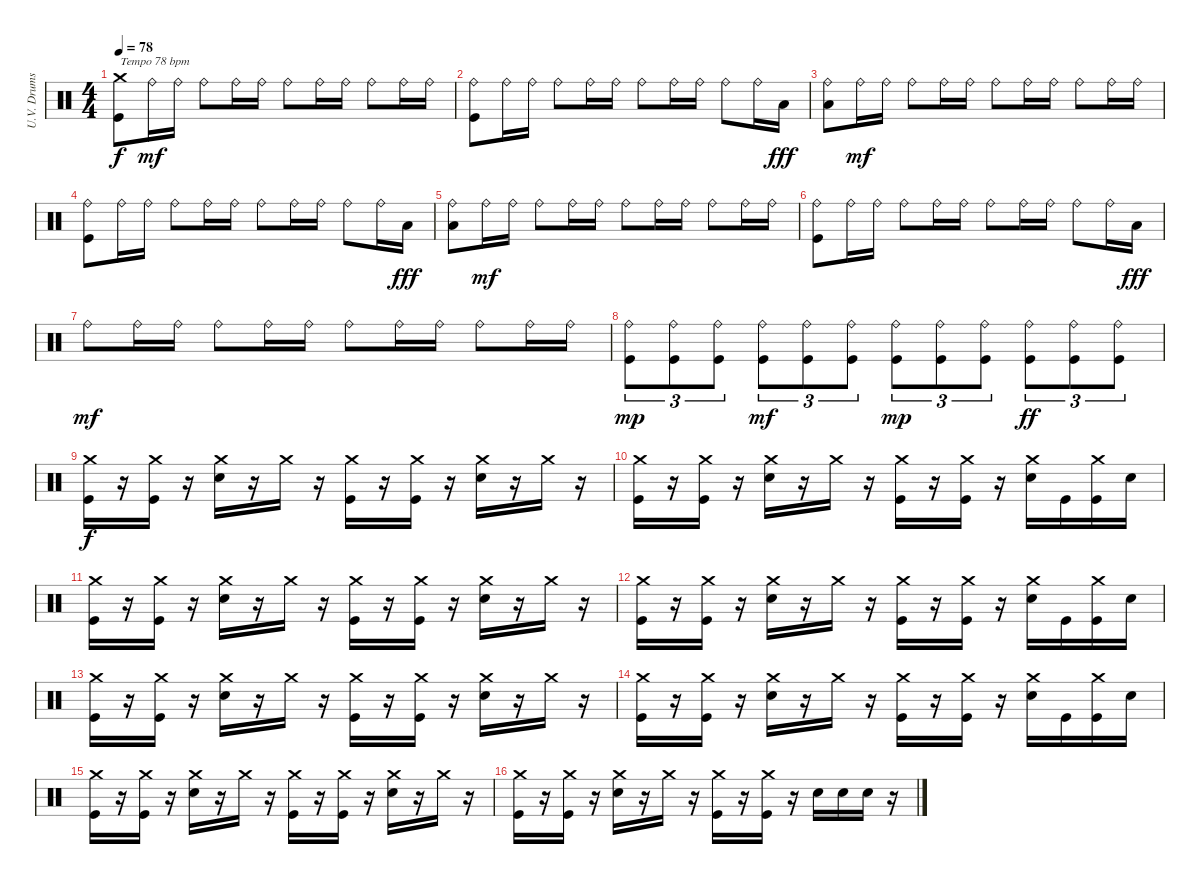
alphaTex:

\track ("U.V. Drums" "U.V. Drums") {instrument percussion}
\staff {score}
\articulation defaults
\ts (4 4)
\tempo 78
\clef neutral
\ks c
("Crash medium (hit)" "Kick (hit)").8{txt "Tempo 78 bpm" dy f} "Ride (bell)".16{dy mf} "Ride (bell)".16 "Ride (bell)".8 "Ride (bell)".16 "Ride (bell)".16 "Ride (bell)".8 "Ride (bell)".16 "Ride (bell)".16 "Ride (bell)".8 "Ride (bell)".16 "Ride (bell)".16 |
("Ride (bell)" "Kick (hit)").8 "Ride (bell)".16 "Ride (bell)".16 "Ride (bell)".8 "Ride (bell)".16 "Ride (bell)".16 "Ride (bell)".8 "Ride (bell)".16 "Ride (bell)".16 "Ride (bell)".8 "Ride (bell)".16 "Low Tom (hit)".16{dy fff} |
("Ride (bell)" "Low Tom (hit)").8 "Ride (bell)".16{dy mf} "Ride (bell)".16 "Ride (bell)".8 "Ride (bell)".16 "Ride (bell)".16 "Ride (bell)".8 "Ride (bell)".16 "Ride (bell)".16 "Ride (bell)".8 "Ride (bell)".16 "Ride (bell)".16 |
("Ride (bell)" "Kick (hit)").8 "Ride (bell)".16 "Ride (bell)".16 "Ride (bell)".8 "Ride (bell)".16 "Ride (bell)".16 "Ride (bell)".8 "Ride (bell)".16 "Ride (bell)".16 "Ride (bell)".8 "Ride (bell)".16 "Low Tom (hit)".16{dy fff} |
("Ride (bell)" "Low Tom (hit)").8 "Ride (bell)".16{dy mf} "Ride (bell)".16 "Ride (bell)".8 "Ride (bell)".16 "Ride (bell)".16 "Ride (bell)".8 "Ride (bell)".16 "Ride (bell)".16 "Ride (bell)".8 "Ride (bell)".16 "Ride (bell)".16 |
("Ride (bell)" "Kick (hit)").8 "Ride (bell)".16 "Ride (bell)".16 "Ride (bell)".8 "Ride (bell)".16 "Ride (bell)".16 "Ride (bell)".8 "Ride (bell)".16 "Ride (bell)".16 "Ride (bell)".8 "Ride (bell)".16 "Low Tom (hit)".16{dy fff} |
"Ride (bell)".8{dy mf} "Ride (bell)".16 "Ride (bell)".16 "Ride (bell)".8 "Ride (bell)".16 "Ride (bell)".16 "Ride (bell)".8 "Ride (bell)".16 "Ride (bell)".16 "Ride (bell)".8 "Ride (bell)".16 "Ride (bell)".16 |
("Ride (bell)" "Kick (hit)").8{tu (3 2) dy mp} ("Ride (bell)" "Kick (hit)").8{tu (3 2)} ("Ride (bell)" "Kick (hit)").8{tu (3 2)} ("Ride (bell)" "Kick (hit)").8{tu (3 2) dy mf} ("Ride (bell)" "Kick (hit)").8{tu (3 2)} ("Ride (bell)" "Kick (hit)").8{tu (3 2)} ("Ride (bell)" "Kick (hit)").8{tu (3 2) dy mp} ("Ride (bell)" "Kick (hit)").8{tu (3 2)} ("Ride (bell)" "Kick (hit)").8{tu (3 2)} ("Ride (bell)" "Kick (hit)").8{tu (3 2) dy ff} ("Ride (bell)" "Kick (hit)").8{tu (3 2)} ("Ride (bell)" "Kick (hit)").8{tu (3 2)} |
("Crash medium (hit)" "Kick (hit)").16{dy f} r.16 ("Crash medium (hit)" "Kick (hit)").16 r.16 ("Crash medium (hit)" "Electric Snare (hit)").16 r.16 "Crash medium (hit)".16 r.16 ("Crash medium (hit)" "Kick (hit)").16 r.16 ("Crash medium (hit)" "Kick (hit)").16 r.16 ("Crash medium (hit)" "Electric Snare (hit)").16 r.16 "Crash medium (hit)".16 r.16 |
("Crash medium (hit)" "Kick (hit)").16 r.16 ("Crash medium (hit)" "Kick (hit)").16 r.16 ("Crash medium (hit)" "Electric Snare (hit)").16 r.16 "Crash medium (hit)".16 r.16 ("Crash medium (hit)" "Kick (hit)").16 r.16 ("Crash medium (hit)" "Kick (hit)").16 r.16 ("Crash medium (hit)" "Electric Snare (hit)").16 "Kick (hit)".16 ("Crash medium (hit)" "Kick (hit)").16 "Electric Snare (hit)".16 |
("Crash medium (hit)" "Kick (hit)").16 r.16 ("Crash medium (hit)" "Kick (hit)").16 r.16 ("Crash medium (hit)" "Electric Snare (hit)").16 r.16 "Crash medium (hit)".16 r.16 ("Crash medium (hit)" "Kick (hit)").16 r.16 ("Crash medium (hit)" "Kick (hit)").16 r.16 ("Crash medium (hit)" "Electric Snare (hit)").16 r.16 "Crash medium (hit)".16 r.16 |
("Crash medium (hit)" "Kick (hit)").16 r.16 ("Crash medium (hit)" "Kick (hit)").16 r.16 ("Crash medium (hit)" "Electric Snare (hit)").16 r.16 "Crash medium (hit)".16 r.16 ("Crash medium (hit)" "Kick (hit)").16 r.16 ("Crash medium (hit)" "Kick (hit)").16 r.16 ("Crash medium (hit)" "Electric Snare (hit)").16 "Kick (hit)".16 ("Crash medium (hit)" "Kick (hit)").16 "Electric Snare (hit)".16 |
("Crash medium (hit)" "Kick (hit)").16 r.16 ("Crash medium (hit)" "Kick (hit)").16 r.16 ("Crash medium (hit)" "Electric Snare (hit)").16 r.16 "Crash medium (hit)".16 r.16 ("Crash medium (hit)" "Kick (hit)").16 r.16 ("Crash medium (hit)" "Kick (hit)").16 r.16 ("Crash medium (hit)" "Electric Snare (hit)").16 r.16 "Crash medium (hit)".16 r.16 |
("Crash medium (hit)" "Kick (hit)").16 r.16 ("Crash medium (hit)" "Kick (hit)").16 r.16 ("Crash medium (hit)" "Electric Snare (hit)").16 r.16 "Crash medium (hit)".16 r.16 ("Crash medium (hit)" "Kick (hit)").16 r.16 ("Crash medium (hit)" "Kick (hit)").16 r.16 ("Crash medium (hit)" "Electric Snare (hit)").16 "Kick (hit)".16 ("Crash medium (hit)" "Kick (hit)").16 "Electric Snare (hit)".16 |
("Crash medium (hit)" "Kick (hit)").16 r.16 ("Crash medium (hit)" "Kick (hit)").16 r.16 ("Crash medium (hit)" "Electric Snare (hit)").16 r.16 "Crash medium (hit)".16 r.16 ("Crash medium (hit)" "Kick (hit)").16 r.16 ("Crash medium (hit)" "Kick (hit)").16 r.16 ("Crash medium (hit)" "Electric Snare (hit)").16 r.16 "Crash medium (hit)".16 r.16 |
("Crash medium (hit)" "Kick (hit)").16 r.16 ("Crash medium (hit)" "Kick (hit)").16 r.16 ("Crash medium (hit)" "Electric Snare (hit)").16 r.16 "Crash medium (hit)".16 r.16 ("Crash medium (hit)" "Kick (hit)").16 r.16 ("Crash medium (hit)" "Kick (hit)").16 r.16 "Electric Snare (hit)".16 "Electric Snare (hit)".16 "Electric Snare (hit)".16 r.16
